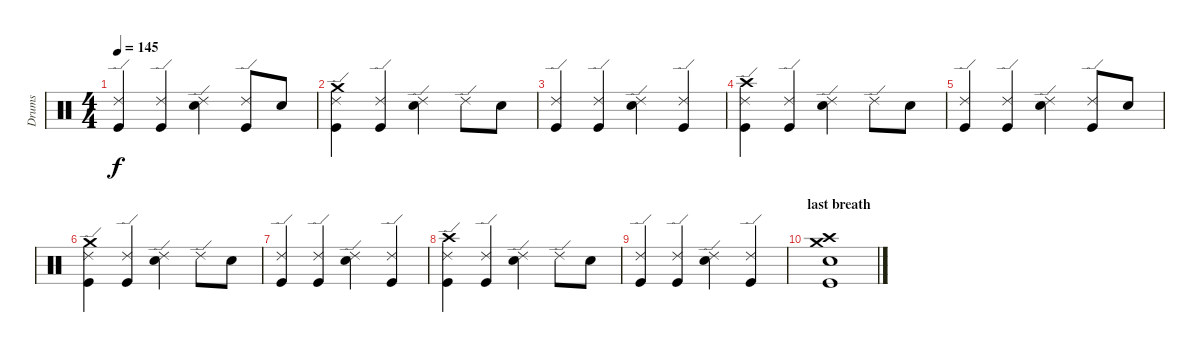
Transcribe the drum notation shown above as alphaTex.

\track ("Drums" "Drums") {instrument percussion}
\staff {score}
\articulation defaults
\ts (4 4)
\tempo 145
\clef neutral
\ks c
("Ride (edge) 2" "Kick (hit)").4{dy f} ("Ride (edge) 2" "Kick (hit)").4 ("Ride (edge) 2" "Electric Snare (hit)").4 ("Ride (edge) 2" "Kick (hit)").8 "Electric Snare (hit)".8 |
("Ride (edge) 2" "Crash medium (hit)" "Kick (hit)").4 ("Ride (edge) 2" "Kick (hit)").4 ("Ride (edge) 2" "Electric Snare (hit)").4 "Ride (edge) 2".8 "Electric Snare (hit)".8 |
("Ride (edge) 2" "Kick (hit)").4 ("Ride (edge) 2" "Kick (hit)").4 ("Ride (edge) 2" "Electric Snare (hit)").4 ("Ride (edge) 2" "Kick (hit)").4 |
("Ride (edge) 2" "Crash high (hit)" "Kick (hit)").4 ("Ride (edge) 2" "Kick (hit)").4 ("Ride (edge) 2" "Electric Snare (hit)").4 "Ride (edge) 2".8 "Electric Snare (hit)".8 |
("Ride (edge) 2" "Kick (hit)").4 ("Ride (edge) 2" "Kick (hit)").4 ("Ride (edge) 2" "Electric Snare (hit)").4 ("Ride (edge) 2" "Kick (hit)").8 "Electric Snare (hit)".8 |
("Ride (edge) 2" "Crash medium (hit)" "Kick (hit)").4 ("Ride (edge) 2" "Kick (hit)").4 ("Ride (edge) 2" "Electric Snare (hit)").4 "Ride (edge) 2".8 "Electric Snare (hit)".8 |
("Ride (edge) 2" "Kick (hit)").4 ("Ride (edge) 2" "Kick (hit)").4 ("Ride (edge) 2" "Electric Snare (hit)").4 ("Ride (edge) 2" "Kick (hit)").4 |
("Ride (edge) 2" "Crash high (hit)" "Kick (hit)").4 ("Ride (edge) 2" "Kick (hit)").4 ("Ride (edge) 2" "Electric Snare (hit)").4 "Ride (edge) 2".8 "Electric Snare (hit)".8 |
("Ride (edge) 2" "Kick (hit)").4 ("Ride (edge) 2" "Kick (hit)").4 ("Ride (edge) 2" "Electric Snare (hit)").4 ("Ride (edge) 2" "Kick (hit)").4 |
\section ("" "last breath")
("Crash high (hit)" "Crash medium (hit)" "Electric Snare (hit)" "Kick (hit)").1
